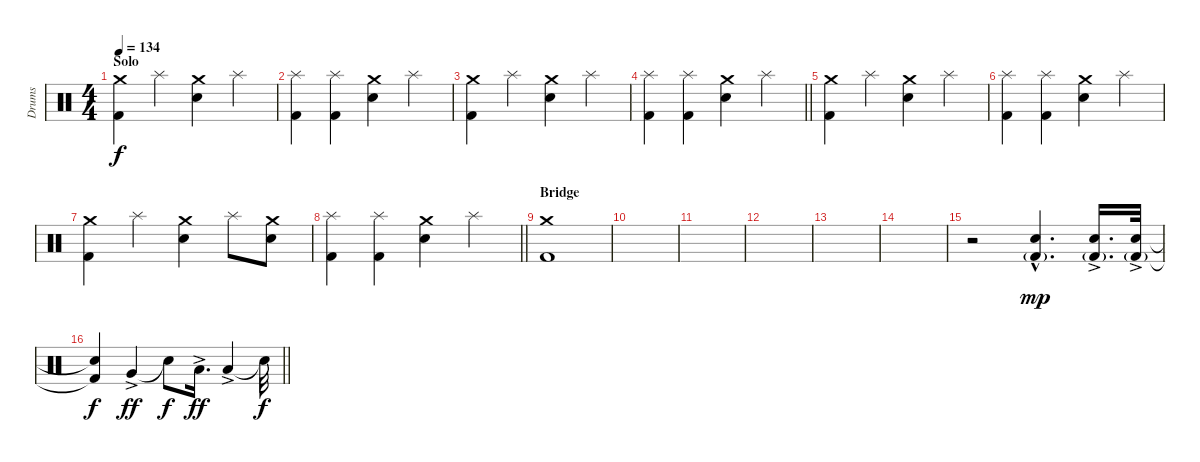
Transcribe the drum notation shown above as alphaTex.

\track ("Drums" "Drums") {instrument percussion}
\staff {score}
\articulation defaults
\ts (4 4)
\section ("" "Solo")
\tempo 134
\clef neutral
\ks c
("Crash medium (hit)" "Kick (hit) 2").4{dy f} "Splash (hit)".4 ("Crash medium (hit)" "Electric Snare (hit)").4 "Splash (hit)".4 |
("Splash (hit)" "Kick (hit) 2").4 ("Splash (hit)" "Kick (hit) 2").4 ("Crash medium (hit)" "Electric Snare (hit)").4 "Splash (hit)".4 |
("Crash medium (hit)" "Kick (hit) 2").4 "Splash (hit)".4 ("Crash medium (hit)" "Electric Snare (hit)").4 "Splash (hit)".4 |
\barLineRight lightlight
("Splash (hit)" "Kick (hit) 2").4 ("Splash (hit)" "Kick (hit) 2").4 ("Crash medium (hit)" "Electric Snare (hit)").4 "Splash (hit)".4 |
("Crash medium (hit)" "Kick (hit) 2").4 "Splash (hit)".4 ("Crash medium (hit)" "Electric Snare (hit)").4 "Splash (hit)".4 |
("Splash (hit)" "Kick (hit) 2").4 ("Splash (hit)" "Kick (hit) 2").4 ("Crash medium (hit)" "Electric Snare (hit)").4 "Splash (hit)".4 |
("Crash medium (hit)" "Kick (hit) 2").4 "Splash (hit)".4 ("Crash medium (hit)" "Electric Snare (hit)").4 "Splash (hit)".8 ("Crash medium (hit)" "Electric Snare (hit)").8 |
\barLineRight lightlight
("Splash (hit)" "Kick (hit) 2").4 ("Splash (hit)" "Kick (hit) 2").4 ("Crash medium (hit)" "Electric Snare (hit)").4 "Splash (hit)".4 |
\section ("" "Bridge")
("Crash medium (hit)" "Kick (hit) 2").1 |
|
|
|
|
|
r.2 ("Electric Snare (hit)"{hac} "Kick (hit) 2"{g}).4{d dy mp} ("Electric Snare (hit)"{ac} "Kick (hit) 2"{g}).16{d} ("Electric Snare (hit)"{ac} "Kick (hit) 2"{g}).32 |
\barLineRight lightlight
("Electric Snare (hit)"{t} "Kick (hit) 2"{t}).4{dy f} "Very Low Tom (hit)"{ac}.4{dy ff} "Snare (hit)"{t}.8{dy f} "Low Floor Tom (hit)"{ac}.16{d dy ff} "Low Floor Tom (hit)"{ac}.4 "Snare (hit)"{t}.32{dy f}
